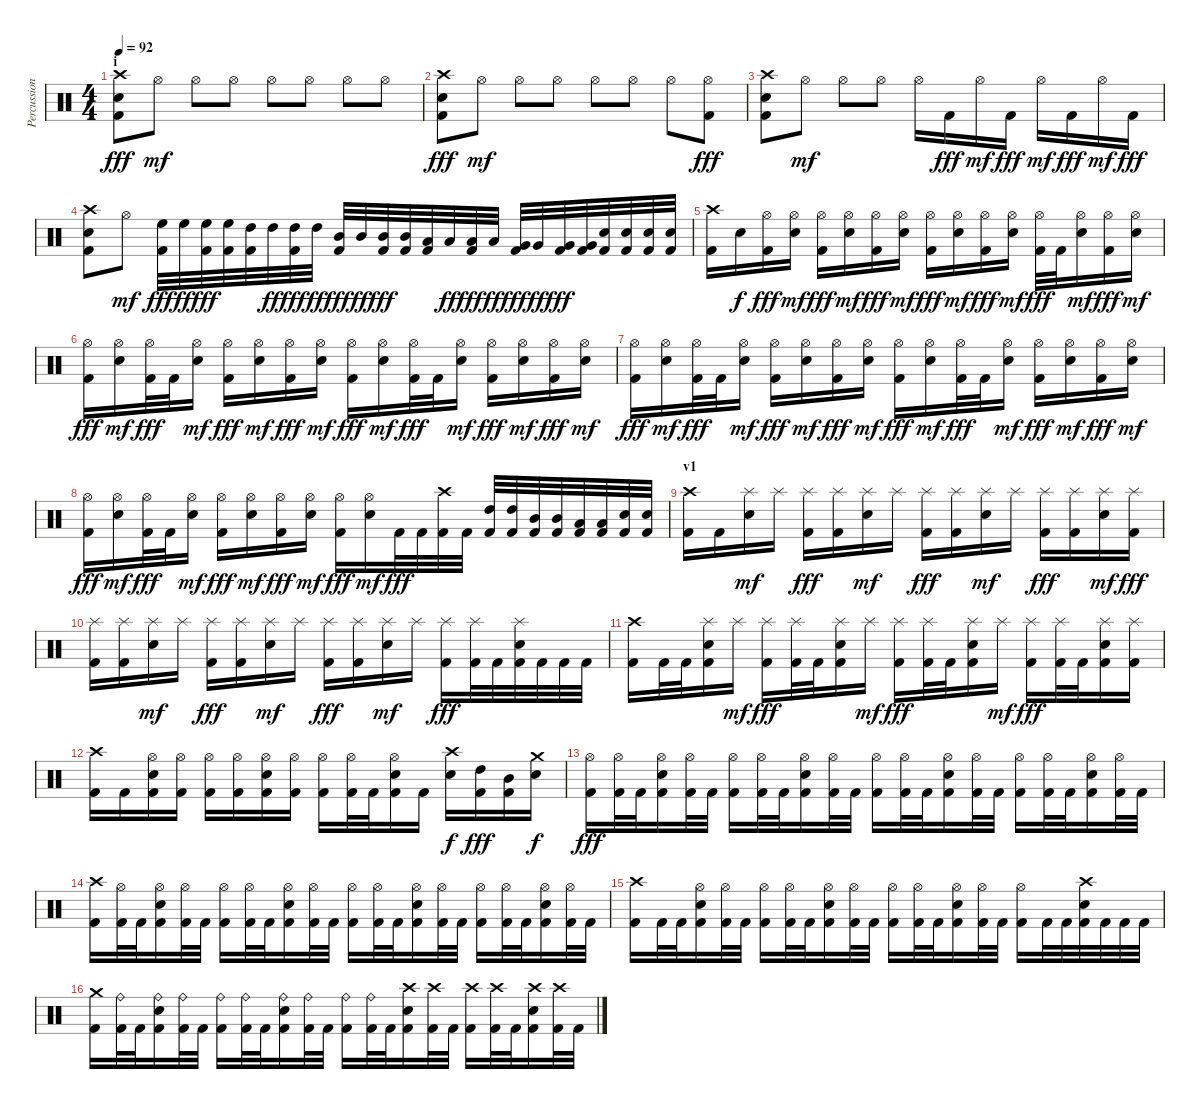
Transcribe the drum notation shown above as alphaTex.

\track ("Percussion" "Percussion") {instrument percussion}
\staff {score}
\articulation defaults
\ts (4 4)
\section ("" "i")
\tempo 92
\clef neutral
\ks c
("Crash high (hit)" "Electric Snare (hit)" "Kick (hit) 2").8{dy fff} "Hi-Hat (open)".8{dy mf} "Hi-Hat (open)".8 "Hi-Hat (open)".8 "Hi-Hat (open)".8 "Hi-Hat (open)".8 "Hi-Hat (open)".8 "Hi-Hat (open)".8 |
("Crash high (hit)" "Electric Snare (hit)" "Kick (hit) 2").8{dy fff} "Hi-Hat (open)".8{dy mf} "Hi-Hat (open)".8 "Hi-Hat (open)".8 "Hi-Hat (open)".8 "Hi-Hat (open)".8 "Hi-Hat (open)".8 ("Hi-Hat (open)" "Kick (hit) 2").8{dy fff} |
("Crash high (hit)" "Electric Snare (hit)" "Kick (hit) 2").8 "Hi-Hat (open)".8{dy mf} "Hi-Hat (open)".8 "Hi-Hat (open)".8 "Hi-Hat (open)".16 "Kick (hit) 2".16{dy fff} "Hi-Hat (open)".16{dy mf} "Kick (hit) 2".16{dy fff} "Hi-Hat (open)".16{dy mf} "Kick (hit) 2".16{dy fff} "Hi-Hat (open)".16{dy mf} "Kick (hit) 2".16{dy fff} |
("Crash high (hit)" "Electric Snare (hit)" "Kick (hit) 2").8 "Hi-Hat (open)".8{dy mf} ("High Floor Tom (hit)" "Kick (hit) 2").32{dy fff} "High Floor Tom (hit)".32{dy ff} ("High Floor Tom (hit)" "Kick (hit) 2").32{dy fff} ("High Floor Tom (hit)" "Kick (hit) 2").32 ("High Tom (hit)" "Kick (hit) 2").32 "High Tom (hit)".32{dy ff} ("High Tom (hit)" "Kick (hit) 2").32{dy fff} "High Tom (hit)".32{dy ff} ("Mid Tom (hit)" "Kick (hit) 2").32{dy fff} "Mid Tom (hit)".32{dy ff} ("Mid Tom (hit)" "Kick (hit) 2").32{dy fff} ("Mid Tom (hit)" "Kick (hit) 2").32 ("Low Tom (hit)" "Kick (hit) 2").32 "Low Tom (hit)".32{dy ff} ("Low Tom (hit)" "Kick (hit) 2").32{dy fff} "Low Tom (hit)".32{dy ff} ("Very Low Tom (hit)" "Kick (hit) 2").32{dy fff} "Very Low Tom (hit)".32{dy ff} ("Very Low Tom (hit)" "Kick (hit) 2").32{dy fff} ("Very Low Tom (hit)" "Kick (hit) 2").32 ("Electric Snare (hit)" "Kick (hit) 2").32 ("Electric Snare (hit)" "Kick (hit) 2").32 ("Electric Snare (hit)" "Kick (hit) 2").32 ("Electric Snare (hit)" "Kick (hit) 2").32 |
("Crash high (hit)" "Kick (hit) 2").16 "Electric Snare (hit)".16{dy f} ("Hi-Hat (open)" "Kick (hit) 2").16{dy fff} ("Hi-Hat (open)" "Electric Snare (hit)").16{dy mf} ("Hi-Hat (open)" "Kick (hit) 2").16{dy fff} ("Hi-Hat (open)" "Electric Snare (hit)").16{dy mf} ("Hi-Hat (open)" "Kick (hit) 2").16{dy fff} ("Hi-Hat (open)" "Electric Snare (hit)").16{dy mf} ("Hi-Hat (open)" "Kick (hit) 2").16{dy fff} ("Hi-Hat (open)" "Electric Snare (hit)").16{dy mf} ("Hi-Hat (open)" "Kick (hit) 2").16{dy fff} ("Hi-Hat (open)" "Electric Snare (hit)").16{dy mf} ("Hi-Hat (open)" "Kick (hit) 2").32{dy fff} "Kick (hit) 2".32 ("Hi-Hat (open)" "Electric Snare (hit)").16{dy mf} ("Hi-Hat (open)" "Kick (hit) 2").16{dy fff} ("Hi-Hat (open)" "Electric Snare (hit)").16{dy mf} |
("Hi-Hat (open)" "Kick (hit) 2").16{dy fff} ("Hi-Hat (open)" "Electric Snare (hit)").16{dy mf} ("Hi-Hat (open)" "Kick (hit) 2").32{dy fff} "Kick (hit) 2".32 ("Hi-Hat (open)" "Electric Snare (hit)").16{dy mf} ("Hi-Hat (open)" "Kick (hit) 2").16{dy fff} ("Hi-Hat (open)" "Electric Snare (hit)").16{dy mf} ("Hi-Hat (open)" "Kick (hit) 2").16{dy fff} ("Hi-Hat (open)" "Electric Snare (hit)").16{dy mf} ("Hi-Hat (open)" "Kick (hit) 2").16{dy fff} ("Hi-Hat (open)" "Electric Snare (hit)").16{dy mf} ("Hi-Hat (open)" "Kick (hit) 2").32{dy fff} "Kick (hit) 2".32 ("Hi-Hat (open)" "Electric Snare (hit)").16{dy mf} ("Hi-Hat (open)" "Kick (hit) 2").16{dy fff} ("Hi-Hat (open)" "Electric Snare (hit)").16{dy mf} ("Hi-Hat (open)" "Kick (hit) 2").16{dy fff} ("Hi-Hat (open)" "Electric Snare (hit)").16{dy mf} |
("Hi-Hat (open)" "Kick (hit) 2").16{dy fff} ("Hi-Hat (open)" "Electric Snare (hit)").16{dy mf} ("Hi-Hat (open)" "Kick (hit) 2").32{dy fff} "Kick (hit) 2".32 ("Hi-Hat (open)" "Electric Snare (hit)").16{dy mf} ("Hi-Hat (open)" "Kick (hit) 2").16{dy fff} ("Hi-Hat (open)" "Electric Snare (hit)").16{dy mf} ("Hi-Hat (open)" "Kick (hit) 2").16{dy fff} ("Hi-Hat (open)" "Electric Snare (hit)").16{dy mf} ("Hi-Hat (open)" "Kick (hit) 2").16{dy fff} ("Hi-Hat (open)" "Electric Snare (hit)").16{dy mf} ("Hi-Hat (open)" "Kick (hit) 2").32{dy fff} "Kick (hit) 2".32 ("Hi-Hat (open)" "Electric Snare (hit)").16{dy mf} ("Hi-Hat (open)" "Kick (hit) 2").16{dy fff} ("Hi-Hat (open)" "Electric Snare (hit)").16{dy mf} ("Hi-Hat (open)" "Kick (hit) 2").16{dy fff} ("Hi-Hat (open)" "Electric Snare (hit)").16{dy mf} |
("Hi-Hat (open)" "Kick (hit) 2").16{dy fff} ("Hi-Hat (open)" "Electric Snare (hit)").16{dy mf} ("Hi-Hat (open)" "Kick (hit) 2").32{dy fff} "Kick (hit) 2".32 ("Hi-Hat (open)" "Electric Snare (hit)").16{dy mf} ("Hi-Hat (open)" "Kick (hit) 2").16{dy fff} ("Hi-Hat (open)" "Electric Snare (hit)").16{dy mf} ("Hi-Hat (open)" "Kick (hit) 2").16{dy fff} ("Hi-Hat (open)" "Electric Snare (hit)").16{dy mf} ("Hi-Hat (open)" "Kick (hit) 2").16{dy fff} ("Hi-Hat (open)" "Electric Snare (hit)").16{dy mf} "Kick (hit) 2".32{dy fff} "Kick (hit) 2".32 ("Crash high (hit)" "Kick (hit) 2").32 "Kick (hit) 2".32 ("High Tom (hit)" "Kick (hit) 2").32 ("High Tom (hit)" "Kick (hit) 2").32 ("Mid Tom (hit)" "Kick (hit) 2").32 ("Mid Tom (hit)" "Kick (hit) 2").32 ("Low Tom (hit)" "Kick (hit) 2").32 ("Low Tom (hit)" "Kick (hit) 2").32 ("Electric Snare (hit)" "Kick (hit) 2").32 ("Electric Snare (hit)" "Kick (hit) 2").32 |
\section ("" "v1")
("Crash high (hit)" "Kick (hit) 2").16 "Kick (hit) 2".16 ("Splash (hit)" "Electric Snare (hit)").16{dy mf} "Splash (hit)".16 ("Splash (hit)" "Kick (hit) 2").16{dy fff} ("Splash (hit)" "Kick (hit) 2").16 ("Splash (hit)" "Electric Snare (hit)").16{dy mf} "Splash (hit)".16 ("Splash (hit)" "Kick (hit) 2").16{dy fff} ("Splash (hit)" "Kick (hit) 2").16 ("Splash (hit)" "Electric Snare (hit)").16{dy mf} "Splash (hit)".16 ("Splash (hit)" "Kick (hit) 2").16{dy fff} ("Splash (hit)" "Kick (hit) 2").16 ("Splash (hit)" "Electric Snare (hit)").16{dy mf} ("Splash (hit)" "Kick (hit) 2").16{dy fff} |
("Splash (hit)" "Kick (hit) 2").16 ("Splash (hit)" "Kick (hit) 2").16 ("Splash (hit)" "Electric Snare (hit)").16{dy mf} "Splash (hit)".16 ("Splash (hit)" "Kick (hit) 2").16{dy fff} ("Splash (hit)" "Kick (hit) 2").16 ("Splash (hit)" "Electric Snare (hit)").16{dy mf} "Splash (hit)".16 ("Splash (hit)" "Kick (hit) 2").16{dy fff} ("Splash (hit)" "Kick (hit) 2").16 ("Splash (hit)" "Electric Snare (hit)").16{dy mf} "Splash (hit)".16 ("Splash (hit)" "Kick (hit) 2").16{dy fff} ("Splash (hit)" "Kick (hit) 2").32 "Kick (hit) 2".32 ("Splash (hit)" "Electric Snare (hit)" "Kick (hit) 2").32 "Kick (hit) 2".32 "Kick (hit) 2".32 "Kick (hit) 2".32 |
("Crash high (hit)" "Kick (hit) 2").16 "Kick (hit) 2".32 "Kick (hit) 2".32 ("Splash (hit)" "Electric Snare (hit)" "Kick (hit) 2").16 "Splash (hit)".16{dy mf} ("Splash (hit)" "Kick (hit) 2").16{dy fff} ("Splash (hit)" "Kick (hit) 2").32 "Kick (hit) 2".32 ("Splash (hit)" "Electric Snare (hit)" "Kick (hit) 2").16 "Splash (hit)".16{dy mf} ("Splash (hit)" "Kick (hit) 2").16{dy fff} ("Splash (hit)" "Kick (hit) 2").32 "Kick (hit) 2".32 ("Splash (hit)" "Electric Snare (hit)" "Kick (hit) 2").16 "Splash (hit)".16{dy mf} ("Splash (hit)" "Kick (hit) 2").16{dy fff} ("Splash (hit)" "Kick (hit) 2").32 "Kick (hit) 2".32 ("Splash (hit)" "Electric Snare (hit)" "Kick (hit) 2").16 ("Splash (hit)" "Kick (hit) 2").16 |
("Crash high (hit)" "Kick (hit) 2").16 "Kick (hit) 2".16 ("Hi-Hat (open)" "Electric Snare (hit)" "Kick (hit) 2").16 ("Hi-Hat (open)" "Kick (hit) 2").16 ("Hi-Hat (open)" "Kick (hit) 2").16 ("Hi-Hat (open)" "Kick (hit) 2").16 ("Hi-Hat (open)" "Electric Snare (hit)" "Kick (hit) 2").16 ("Hi-Hat (open)" "Kick (hit) 2").16 ("Hi-Hat (open)" "Kick (hit) 2").16 ("Hi-Hat (open)" "Kick (hit) 2").32 "Kick (hit) 2".32 ("Hi-Hat (open)" "Electric Snare (hit)" "Kick (hit) 2").16 "Kick (hit) 2".16 ("Crash high (hit)" "Electric Snare (hit)").16{dy f} ("High Tom (hit)" "Kick (hit) 2").16{dy fff} ("Mid Tom (hit)" "Kick (hit) 2").16 ("Crash medium (hit)" "Electric Snare (hit)").16{dy f} |
("Hi-Hat (open)" "Kick (hit) 2").16{dy fff} ("Hi-Hat (open)" "Kick (hit) 2").32 "Kick (hit) 2".32 ("Hi-Hat (open)" "Electric Snare (hit)" "Kick (hit) 2").16 ("Hi-Hat (open)" "Kick (hit) 2").32 "Kick (hit) 2".32 ("Hi-Hat (open)" "Kick (hit) 2").16 ("Hi-Hat (open)" "Kick (hit) 2").32 "Kick (hit) 2".32 ("Hi-Hat (open)" "Electric Snare (hit)" "Kick (hit) 2").16 ("Hi-Hat (open)" "Kick (hit) 2").32 "Kick (hit) 2".32 ("Hi-Hat (open)" "Kick (hit) 2").16 ("Hi-Hat (open)" "Kick (hit) 2").32 "Kick (hit) 2".32 ("Hi-Hat (open)" "Electric Snare (hit)" "Kick (hit) 2").16 ("Hi-Hat (open)" "Kick (hit) 2").32 "Kick (hit) 2".32 ("Hi-Hat (open)" "Kick (hit) 2").16 ("Hi-Hat (open)" "Kick (hit) 2").32 "Kick (hit) 2".32 ("Hi-Hat (open)" "Electric Snare (hit)" "Kick (hit) 2").16 ("Hi-Hat (open)" "Kick (hit) 2").32 "Kick (hit) 2".32 |
("Crash high (hit)" "Kick (hit) 2").16 ("Hi-Hat (open)" "Kick (hit) 2").32 "Kick (hit) 2".32 ("Hi-Hat (open)" "Electric Snare (hit)" "Kick (hit) 2").16 ("Hi-Hat (open)" "Kick (hit) 2").32 "Kick (hit) 2".32 ("Hi-Hat (open)" "Kick (hit) 2").16 ("Hi-Hat (open)" "Kick (hit) 2").32 "Kick (hit) 2".32 ("Hi-Hat (open)" "Electric Snare (hit)" "Kick (hit) 2").16 ("Hi-Hat (open)" "Kick (hit) 2").32 "Kick (hit) 2".32 ("Hi-Hat (open)" "Kick (hit) 2").16 ("Hi-Hat (open)" "Kick (hit) 2").32 "Kick (hit) 2".32 ("Hi-Hat (open)" "Electric Snare (hit)" "Kick (hit) 2").16 ("Hi-Hat (open)" "Kick (hit) 2").32 "Kick (hit) 2".32 ("Hi-Hat (open)" "Kick (hit) 2").16 ("Hi-Hat (open)" "Kick (hit) 2").32 "Kick (hit) 2".32 ("Hi-Hat (open)" "Electric Snare (hit)" "Kick (hit) 2").16 ("Hi-Hat (open)" "Kick (hit) 2").32 "Kick (hit) 2".32 |
("Crash high (hit)" "Kick (hit) 2").16 "Kick (hit) 2".32 "Kick (hit) 2".32 ("Hi-Hat (open)" "Electric Snare (hit)" "Kick (hit) 2").16 ("Hi-Hat (open)" "Kick (hit) 2").32 "Kick (hit) 2".32 ("Hi-Hat (open)" "Kick (hit) 2").16 ("Hi-Hat (open)" "Kick (hit) 2").32 "Kick (hit) 2".32 ("Hi-Hat (open)" "Electric Snare (hit)" "Kick (hit) 2").16 ("Hi-Hat (open)" "Kick (hit) 2").32 "Kick (hit) 2".32 ("Hi-Hat (open)" "Kick (hit) 2").16 ("Hi-Hat (open)" "Kick (hit) 2").32 "Kick (hit) 2".32 ("Hi-Hat (open)" "Electric Snare (hit)" "Kick (hit) 2").16 ("Hi-Hat (open)" "Kick (hit) 2").32 "Kick (hit) 2".32 ("Hi-Hat (open)" "Kick (hit) 2").16 "Kick (hit) 2".32 "Kick (hit) 2".32 ("Crash high (hit)" "Electric Snare (hit)" "Kick (hit) 2").32 "Kick (hit) 2".32 "Kick (hit) 2".32 "Kick (hit) 2".32 |
("Crash medium (hit)" "Kick (hit) 2").16 ("Ride (bell)" "Kick (hit) 2").32 "Kick (hit) 2".32 ("Ride (bell)" "Electric Snare (hit)" "Kick (hit) 2").16 ("Ride (bell)" "Kick (hit) 2").32 "Kick (hit) 2".32 ("Ride (bell)" "Kick (hit) 2").16 ("Ride (bell)" "Kick (hit) 2").32 "Kick (hit) 2".32 ("Ride (bell)" "Electric Snare (hit)" "Kick (hit) 2").16 ("Ride (bell)" "Kick (hit) 2").32 "Kick (hit) 2".32 ("Ride (bell)" "Kick (hit) 2").16 ("Ride (bell)" "Kick (hit) 2").32 "Kick (hit) 2".32 ("Crash high (hit)" "Electric Snare (hit)" "Kick (hit) 2").16 ("Crash high (hit)" "Kick (hit) 2").32 "Kick (hit) 2".32 ("Crash high (hit)" "Kick (hit) 2").16 ("Crash high (hit)" "Kick (hit) 2").32 "Kick (hit) 2".32 ("Crash high (hit)" "Electric Snare (hit)" "Kick (hit) 2").16 ("Crash high (hit)" "Kick (hit) 2").32 "Kick (hit) 2".32
